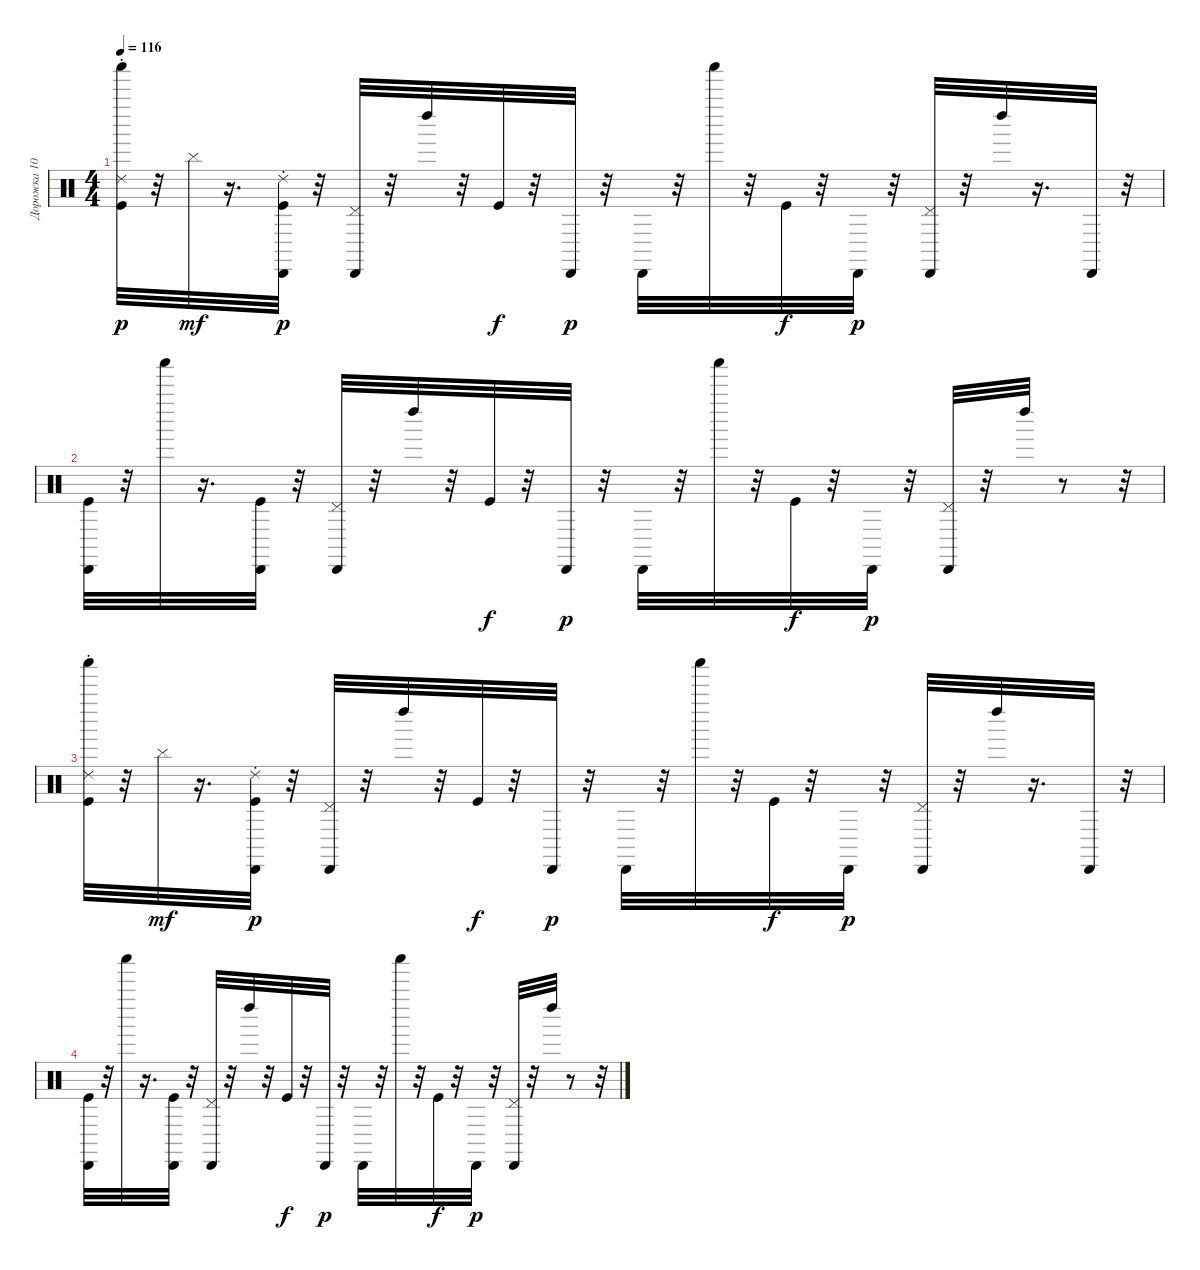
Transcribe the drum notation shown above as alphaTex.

\track ("Дорожка 10" "Дорожка 10") {instrument percussion}
\staff {score}
\articulation defaults
\ts (4 4)
\tempo 116
\clef neutral
\ks c
("Kick (hit)" "Ride (choke) 2" "Shaker (hit)").32{dy p} r.32 "Cymbal (hit)".32{dy mf} r.16{d} ("Kick (hit)" "Ride (choke) 2" "Cabasa (hit)").32{dy p} r.32 ("Pedal Hi-Hat (hit)" "Cabasa (hit)").32 r.32 "Left Maraca (hit)".32 r.32 "Kick (hit)".32{dy f} r.32 "Cabasa (hit)".32{dy p} r.32 "Cabasa (hit)".32 r.32 "Shaker (hit)".32 r.32 "Kick (hit)".32{dy f} r.32 "Cabasa (hit)".32{dy p} r.32 ("Pedal Hi-Hat (hit)" "Cabasa (hit)").32 r.32 "Left Maraca (hit)".32 r.16{d} "Cabasa (hit)".32 r.32 |
("Kick (hit)" "Cabasa (hit)").32 r.32 "Shaker (hit)".32 r.16{d} ("Kick (hit)" "Cabasa (hit)").32 r.32 ("Pedal Hi-Hat (hit)" "Cabasa (hit)").32 r.32 "Left Maraca (hit)".32 r.32 "Kick (hit)".32{dy f} r.32 "Cabasa (hit)".32{dy p} r.32 "Cabasa (hit)".32 r.32 "Shaker (hit)".32 r.32 "Kick (hit)".32{dy f} r.32 "Cabasa (hit)".32{dy p} r.32 ("Pedal Hi-Hat (hit)" "Cabasa (hit)").32 r.32 "Left Maraca (hit)".32 r.8 r.32 |
("Ride (choke) 2" "Kick (hit)" "Shaker (hit)").32 r.32 "Cymbal (hit)".32{dy mf} r.16{d} ("Ride (choke) 2" "Kick (hit)" "Cabasa (hit)").32{dy p} r.32 ("Pedal Hi-Hat (hit)" "Cabasa (hit)").32 r.32 "Left Maraca (hit)".32 r.32 "Kick (hit)".32{dy f} r.32 "Cabasa (hit)".32{dy p} r.32 "Cabasa (hit)".32 r.32 "Shaker (hit)".32 r.32 "Kick (hit)".32{dy f} r.32 "Cabasa (hit)".32{dy p} r.32 ("Pedal Hi-Hat (hit)" "Cabasa (hit)").32 r.32 "Left Maraca (hit)".32 r.16{d} "Cabasa (hit)".32 r.32 |
("Kick (hit)" "Cabasa (hit)").32 r.32 "Shaker (hit)".32 r.16{d} ("Kick (hit)" "Cabasa (hit)").32 r.32 ("Pedal Hi-Hat (hit)" "Cabasa (hit)").32 r.32 "Left Maraca (hit)".32 r.32 "Kick (hit)".32{dy f} r.32 "Cabasa (hit)".32{dy p} r.32 "Cabasa (hit)".32 r.32 "Shaker (hit)".32 r.32 "Kick (hit)".32{dy f} r.32 "Cabasa (hit)".32{dy p} r.32 ("Pedal Hi-Hat (hit)" "Cabasa (hit)").32 r.32 "Left Maraca (hit)".32 r.8 r.32
